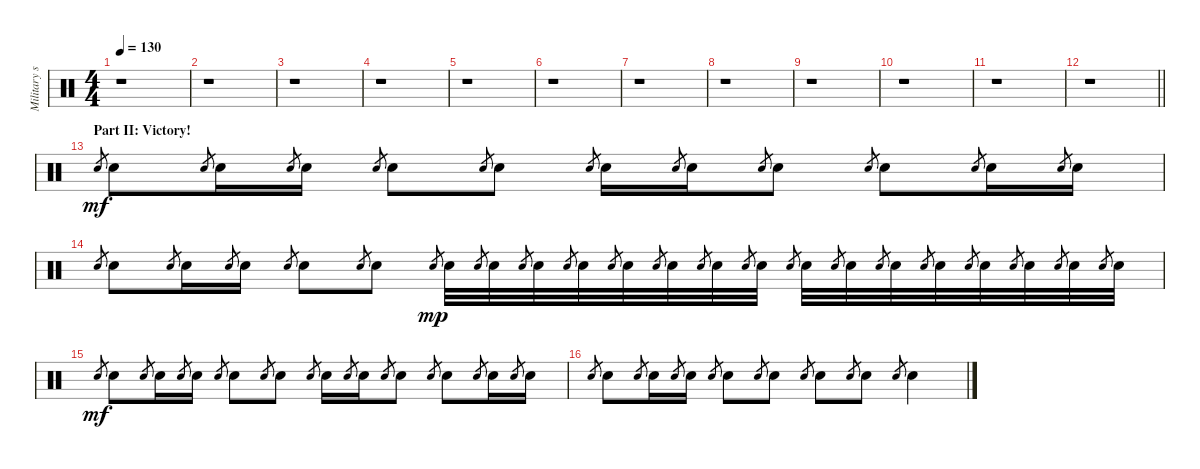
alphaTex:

\track ("Military snare" "Military s") {instrument percussion}
\staff {score}
\articulation defaults
\ts (4 4)
\tempo 130
\clef neutral
\ks c
r.1{dy mf} |
r.1 |
r.1 |
r.1 |
r.1 |
r.1 |
r.1 |
r.1 |
r.1 |
r.1 |
r.1 |
\barLineRight lightlight
r.1 |
\section ("" "Part II: Victory! ")
"Electric Snare (hit)".8{gr} "Electric Snare (hit)".8 "Electric Snare (hit)".8{gr} "Electric Snare (hit)".16 "Electric Snare (hit)".8{gr} "Electric Snare (hit)".16 "Electric Snare (hit)".8{gr} "Electric Snare (hit)".8{volume 14} "Electric Snare (hit)".8{gr} "Electric Snare (hit)".8 "Electric Snare (hit)".8{gr} "Electric Snare (hit)".16 "Electric Snare (hit)".8{gr} "Electric Snare (hit)".16 "Electric Snare (hit)".8{gr} "Electric Snare (hit)".8 "Electric Snare (hit)".8{gr} "Electric Snare (hit)".8 "Electric Snare (hit)".8{gr} "Electric Snare (hit)".16 "Electric Snare (hit)".8{gr} "Electric Snare (hit)".16 |
"Electric Snare (hit)".8{gr} "Electric Snare (hit)".8 "Electric Snare (hit)".8{gr} "Electric Snare (hit)".16 "Electric Snare (hit)".8{gr} "Electric Snare (hit)".16 "Electric Snare (hit)".8{gr} "Electric Snare (hit)".8 "Electric Snare (hit)".8{gr} "Electric Snare (hit)".8 "Electric Snare (hit)".8{gr dy mp} "Electric Snare (hit)".32 "Electric Snare (hit)".8{gr} "Electric Snare (hit)".32 "Electric Snare (hit)".8{gr} "Electric Snare (hit)".32 "Electric Snare (hit)".8{gr} "Electric Snare (hit)".32 "Electric Snare (hit)".8{gr} "Electric Snare (hit)".32 "Electric Snare (hit)".8{gr} "Electric Snare (hit)".32 "Electric Snare (hit)".8{gr} "Electric Snare (hit)".32 "Electric Snare (hit)".8{gr} "Electric Snare (hit)".32 "Electric Snare (hit)".8{gr} "Electric Snare (hit)".32 "Electric Snare (hit)".8{gr} "Electric Snare (hit)".32 "Electric Snare (hit)".8{gr} "Electric Snare (hit)".32 "Electric Snare (hit)".8{gr} "Electric Snare (hit)".32 "Electric Snare (hit)".8{gr} "Electric Snare (hit)".32 "Electric Snare (hit)".8{gr} "Electric Snare (hit)".32 "Electric Snare (hit)".8{gr} "Electric Snare (hit)".32 "Electric Snare (hit)".8{gr} "Electric Snare (hit)".32 |
"Electric Snare (hit)".8{gr dy mf} "Electric Snare (hit)".8 "Electric Snare (hit)".8{gr} "Electric Snare (hit)".16 "Electric Snare (hit)".8{gr} "Electric Snare (hit)".16 "Electric Snare (hit)".8{gr} "Electric Snare (hit)".8 "Electric Snare (hit)".8{gr} "Electric Snare (hit)".8 "Electric Snare (hit)".8{gr} "Electric Snare (hit)".16 "Electric Snare (hit)".8{gr} "Electric Snare (hit)".16 "Electric Snare (hit)".8{gr} "Electric Snare (hit)".8 "Electric Snare (hit)".8{gr} "Electric Snare (hit)".8 "Electric Snare (hit)".8{gr} "Electric Snare (hit)".16 "Electric Snare (hit)".8{gr} "Electric Snare (hit)".16 |
"Electric Snare (hit)".8{gr} "Electric Snare (hit)".8 "Electric Snare (hit)".8{gr} "Electric Snare (hit)".16 "Electric Snare (hit)".8{gr} "Electric Snare (hit)".16 "Electric Snare (hit)".8{gr} "Electric Snare (hit)".8 "Electric Snare (hit)".8{gr} "Electric Snare (hit)".8 "Electric Snare (hit)".8{gr} "Electric Snare (hit)".8 "Electric Snare (hit)".8{gr} "Electric Snare (hit)".8 "Electric Snare (hit)".8{gr} "Electric Snare (hit)".4
